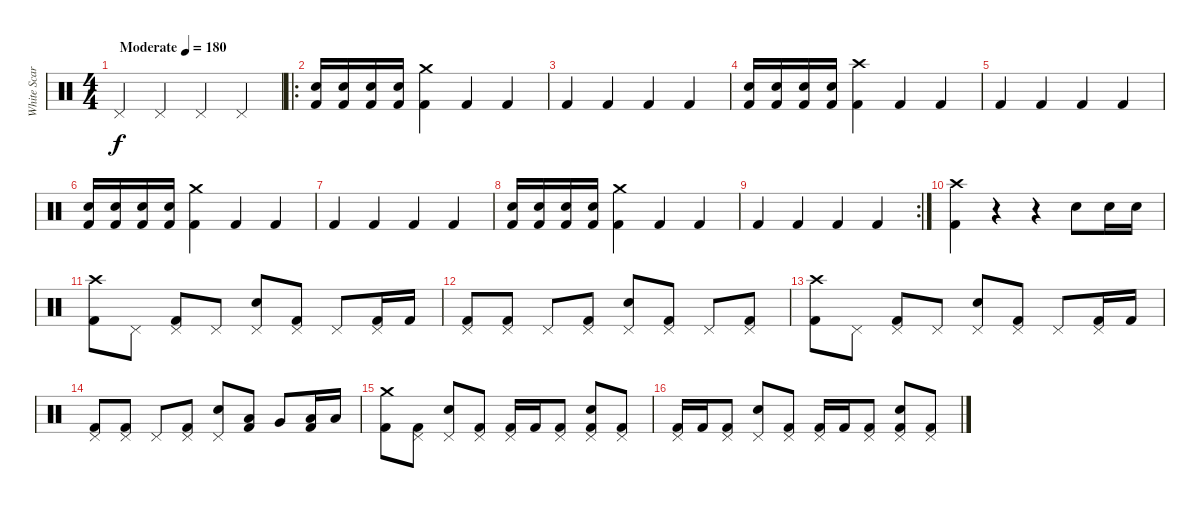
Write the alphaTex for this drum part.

\track ("White Scar" "White Scar") {instrument percussion}
\staff {score}
\articulation defaults
\ts (4 4)
\tempo (180 "Moderate")
\clef neutral
\ks c "Pedal Hi-Hat (hit)".4{dy f} "Pedal Hi-Hat (hit)".4 "Pedal Hi-Hat (hit)".4 "Pedal Hi-Hat (hit)".4
|
\ro
("Snare (hit) 2" "Kick (hit) 2").16 ("Snare (hit) 2" "Kick (hit) 2").16 ("Snare (hit) 2" "Kick (hit) 2").16 ("Snare (hit) 2" "Kick (hit) 2").16 ("Crash medium (hit)" "Kick (hit) 2").4 "Kick (hit) 2".4 "Kick (hit) 2".4 |
"Kick (hit) 2".4 "Kick (hit) 2".4 "Kick (hit) 2".4 "Kick (hit) 2".4 |
("Snare (hit) 2" "Kick (hit) 2").16 ("Snare (hit) 2" "Kick (hit) 2").16 ("Snare (hit) 2" "Kick (hit) 2").16 ("Snare (hit) 2" "Kick (hit) 2").16 ("Crash high (hit)" "Kick (hit) 2").4 "Kick (hit) 2".4 "Kick (hit) 2".4 |
"Kick (hit) 2".4 "Kick (hit) 2".4 "Kick (hit) 2".4 "Kick (hit) 2".4 |
("Snare (hit) 2" "Kick (hit) 2").16 ("Snare (hit) 2" "Kick (hit) 2").16 ("Snare (hit) 2" "Kick (hit) 2").16 ("Snare (hit) 2" "Kick (hit) 2").16 ("Crash medium (hit)" "Kick (hit) 2").4 "Kick (hit) 2".4 "Kick (hit) 2".4 |
"Kick (hit) 2".4 "Kick (hit) 2".4 "Kick (hit) 2".4 "Kick (hit) 2".4 |
("Snare (hit) 2" "Kick (hit) 2").16 ("Snare (hit) 2" "Kick (hit) 2").16 ("Snare (hit) 2" "Kick (hit) 2").16 ("Snare (hit) 2" "Kick (hit) 2").16 ("Crash medium (hit)" "Kick (hit) 2").4 "Kick (hit) 2".4 "Kick (hit) 2".4 |
\rc 2 "Kick (hit) 2".4 "Kick (hit) 2".4 "Kick (hit) 2".4 "Kick (hit) 2".4
|
("Crash high (hit)" "Kick (hit) 2").4 r.4 r.4 "Snare (hit) 2".8 "Snare (hit) 2".16 "Snare (hit) 2".16 |
("Crash high (hit)" "Kick (hit) 2").8 "Pedal Hi-Hat (hit)".8 ("Pedal Hi-Hat (hit)" "Kick (hit) 2").8 "Pedal Hi-Hat (hit)".8 ("Snare (hit) 2" "Pedal Hi-Hat (hit)").8 ("Pedal Hi-Hat (hit)" "Kick (hit) 2").8 "Pedal Hi-Hat (hit)".8 ("Pedal Hi-Hat (hit)" "Kick (hit) 2").16 "Kick (hit) 2".16 |
("Pedal Hi-Hat (hit)" "Kick (hit) 2").8 ("Pedal Hi-Hat (hit)" "Kick (hit) 2").8 "Pedal Hi-Hat (hit)".8 ("Pedal Hi-Hat (hit)" "Kick (hit) 2").8 ("Snare (hit) 2" "Pedal Hi-Hat (hit)").8 ("Pedal Hi-Hat (hit)" "Kick (hit) 2").8 "Pedal Hi-Hat (hit)".8 ("Pedal Hi-Hat (hit)" "Kick (hit) 2").8 |
("Crash high (hit)" "Kick (hit) 2").8 "Pedal Hi-Hat (hit)".8 ("Pedal Hi-Hat (hit)" "Kick (hit) 2").8 "Pedal Hi-Hat (hit)".8 ("Snare (hit) 2" "Pedal Hi-Hat (hit)").8 ("Pedal Hi-Hat (hit)" "Kick (hit) 2").8 "Pedal Hi-Hat (hit)".8 ("Pedal Hi-Hat (hit)" "Kick (hit) 2").16 "Kick (hit) 2".16 |
("Pedal Hi-Hat (hit)" "Kick (hit) 2").8 ("Pedal Hi-Hat (hit)" "Kick (hit) 2").8 "Pedal Hi-Hat (hit)".8 ("Pedal Hi-Hat (hit)" "Kick (hit) 2").8 ("Snare (hit) 2" "Pedal Hi-Hat (hit)").8 ("Low Tom (hit)" "Kick (hit) 2").8 "Very Low Tom (hit)".8 ("Low Floor Tom (hit)" "Kick (hit) 2").16 "Low Floor Tom (hit)".16 |
("Crash medium (hit)" "Kick (hit) 2").8 ("Pedal Hi-Hat (hit)" "Kick (hit) 2").8 ("Pedal Hi-Hat (hit)" "Snare (hit) 2").8 ("Pedal Hi-Hat (hit)" "Kick (hit) 2").8 ("Pedal Hi-Hat (hit)" "Kick (hit) 2").16 "Kick (hit) 2".16 ("Pedal Hi-Hat (hit)" "Kick (hit) 2").8 ("Pedal Hi-Hat (hit)" "Snare (hit) 2" "Kick (hit) 2").8 ("Pedal Hi-Hat (hit)" "Kick (hit) 2").8 |
("Pedal Hi-Hat (hit)" "Kick (hit) 2").16 "Kick (hit) 2".16 ("Pedal Hi-Hat (hit)" "Kick (hit) 2").8 ("Pedal Hi-Hat (hit)" "Snare (hit) 2").8 ("Pedal Hi-Hat (hit)" "Kick (hit) 2").8 ("Pedal Hi-Hat (hit)" "Kick (hit) 2").16 "Kick (hit) 2".16 ("Pedal Hi-Hat (hit)" "Kick (hit) 2").8 ("Pedal Hi-Hat (hit)" "Snare (hit) 2" "Kick (hit) 2").8 ("Pedal Hi-Hat (hit)" "Kick (hit) 2").8
